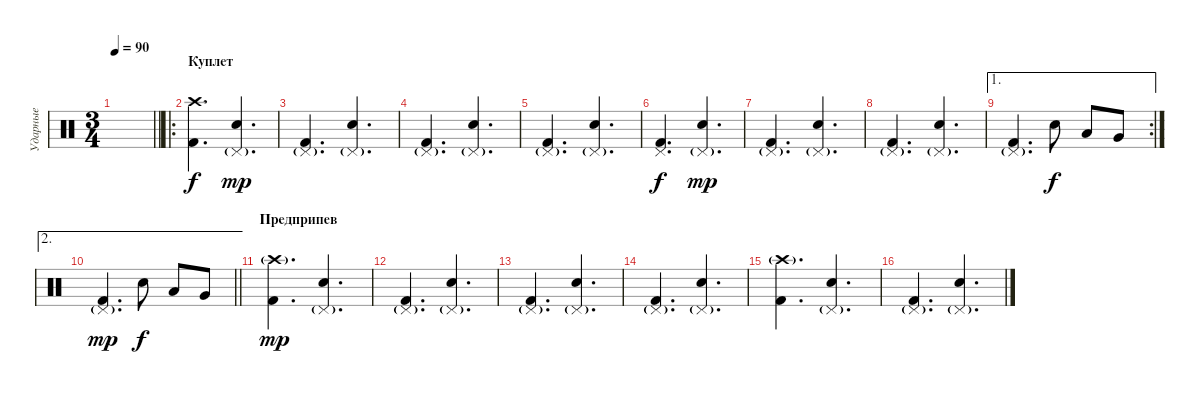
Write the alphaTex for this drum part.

\track ("Ударные" "Ударные") {instrument percussion}
\staff {score}
\articulation defaults
\ts (3 4)
\tempo 90
\clef neutral
\barLineRight lightlight
\ks c
|
\ro
\section ("" "Куплет")
("Kick (hit) 2" "Crash high (hit)").4{d dy f} ("Electric Snare (hit)" "Pedal Hi-Hat (hit)"{g}).4{d dy mp} |
("Kick (hit) 2" "Pedal Hi-Hat (hit)"{g}).4{d} ("Electric Snare (hit)" "Pedal Hi-Hat (hit)"{g}).4{d} |
("Kick (hit) 2" "Pedal Hi-Hat (hit)"{g}).4{d} ("Electric Snare (hit)" "Pedal Hi-Hat (hit)"{g}).4{d} |
("Kick (hit) 2" "Pedal Hi-Hat (hit)"{g}).4{d} ("Electric Snare (hit)" "Pedal Hi-Hat (hit)"{g}).4{d} |
("Kick (hit) 2" "Pedal Hi-Hat (hit)").4{d dy f} ("Electric Snare (hit)" "Pedal Hi-Hat (hit)"{g}).4{d dy mp} |
("Kick (hit) 2" "Pedal Hi-Hat (hit)"{g}).4{d} ("Electric Snare (hit)" "Pedal Hi-Hat (hit)"{g}).4{d} |
("Kick (hit) 2" "Pedal Hi-Hat (hit)"{g}).4{d} ("Electric Snare (hit)" "Pedal Hi-Hat (hit)"{g}).4{d} |
\ae 1
\rc 2
("Kick (hit) 2" "Pedal Hi-Hat (hit)"{g}).4{d} "Electric Snare (hit)".8{dy f} "Low Tom (hit)".8 "Very Low Tom (hit)".8 |
\ae 2
\barLineRight lightlight
("Kick (hit) 2" "Pedal Hi-Hat (hit)"{g}).4{d dy mp} "Snare (hit) 2".8{dy f} "Low Tom (hit)".8 "Very Low Tom (hit)".8 |
\section ("" "Предприпев")
("Kick (hit) 2" "Crash high (hit)"{g}).4{d dy mp} ("Electric Snare (hit)" "Pedal Hi-Hat (hit)"{g}).4{d} |
("Kick (hit) 2" "Pedal Hi-Hat (hit)"{g}).4{d} ("Electric Snare (hit)" "Pedal Hi-Hat (hit)"{g}).4{d} |
("Kick (hit) 2" "Pedal Hi-Hat (hit)"{g}).4{d} ("Electric Snare (hit)" "Pedal Hi-Hat (hit)"{g}).4{d} |
("Kick (hit) 2" "Pedal Hi-Hat (hit)"{g}).4{d} ("Electric Snare (hit)" "Pedal Hi-Hat (hit)"{g}).4{d} |
("Kick (hit) 2" "Crash high (hit)"{g}).4{d} ("Electric Snare (hit)" "Pedal Hi-Hat (hit)"{g}).4{d} |
("Kick (hit) 2" "Pedal Hi-Hat (hit)"{g}).4{d} ("Electric Snare (hit)" "Pedal Hi-Hat (hit)"{g}).4{d}
